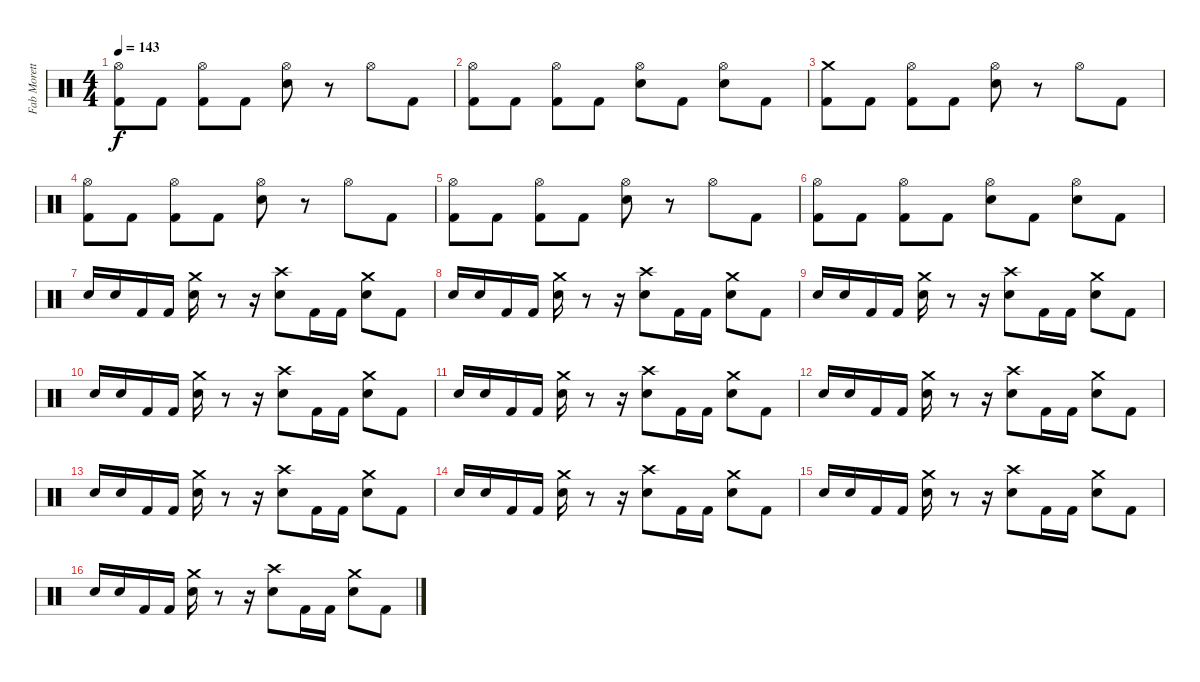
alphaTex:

\track ("Fab Moretti" "Fab Morett") {instrument percussion}
\staff {score}
\articulation defaults
\ts (4 4)
\tempo 143
\clef neutral
\ks c
("Hi-Hat (open)" "Kick (hit) 2").8{dy f} "Kick (hit) 2".8 ("Hi-Hat (open)" "Kick (hit) 2").8 "Kick (hit) 2".8 ("Hi-Hat (open)" "Electric Snare (hit)").8 r.8 "Hi-Hat (open)".8 "Kick (hit) 2".8 |
("Hi-Hat (open)" "Kick (hit) 2").8 "Kick (hit) 2".8 ("Hi-Hat (open)" "Kick (hit) 2").8 "Kick (hit) 2".8 ("Hi-Hat (open)" "Electric Snare (hit)").8 "Kick (hit) 2".8 ("Hi-Hat (open)" "Electric Snare (hit)").8 "Kick (hit) 2".8 |
("Crash medium (hit)" "Kick (hit) 2").8 "Kick (hit) 2".8 ("Hi-Hat (open)" "Kick (hit) 2").8 "Kick (hit) 2".8 ("Hi-Hat (open)" "Electric Snare (hit)").8 r.8 "Hi-Hat (open)".8 "Kick (hit) 2".8 |
("Hi-Hat (open)" "Kick (hit) 2").8 "Kick (hit) 2".8 ("Hi-Hat (open)" "Kick (hit) 2").8 "Kick (hit) 2".8 ("Hi-Hat (open)" "Electric Snare (hit)").8 r.8 "Hi-Hat (open)".8 "Kick (hit) 2".8 |
("Hi-Hat (open)" "Kick (hit) 2").8 "Kick (hit) 2".8 ("Hi-Hat (open)" "Kick (hit) 2").8 "Kick (hit) 2".8 ("Hi-Hat (open)" "Electric Snare (hit)").8 r.8 "Hi-Hat (open)".8 "Kick (hit) 2".8 |
("Hi-Hat (open)" "Kick (hit) 2").8 "Kick (hit) 2".8 ("Hi-Hat (open)" "Kick (hit) 2").8 "Kick (hit) 2".8 ("Hi-Hat (open)" "Electric Snare (hit)").8 "Kick (hit) 2".8 ("Hi-Hat (open)" "Electric Snare (hit)").8 "Kick (hit) 2".8 |
"Electric Snare (hit)".16 "Electric Snare (hit)".16 "Kick (hit) 2".16 "Kick (hit) 2".16 ("Crash medium (hit)" "Electric Snare (hit)").16 r.8 r.16 ("Crash high (hit)" "Electric Snare (hit)").8 "Kick (hit) 2".16 "Kick (hit) 2".16 ("Crash medium (hit)" "Electric Snare (hit)").8 "Kick (hit) 2".8 |
"Electric Snare (hit)".16 "Electric Snare (hit)".16 "Kick (hit) 2".16 "Kick (hit) 2".16 ("Crash medium (hit)" "Electric Snare (hit)").16 r.8 r.16 ("Crash high (hit)" "Electric Snare (hit)").8 "Kick (hit) 2".16 "Kick (hit) 2".16 ("Crash medium (hit)" "Electric Snare (hit)").8 "Kick (hit) 2".8 |
"Electric Snare (hit)".16 "Electric Snare (hit)".16 "Kick (hit) 2".16 "Kick (hit) 2".16 ("Crash medium (hit)" "Electric Snare (hit)").16 r.8 r.16 ("Crash high (hit)" "Electric Snare (hit)").8 "Kick (hit) 2".16 "Kick (hit) 2".16 ("Crash medium (hit)" "Electric Snare (hit)").8 "Kick (hit) 2".8 |
"Electric Snare (hit)".16 "Electric Snare (hit)".16 "Kick (hit) 2".16 "Kick (hit) 2".16 ("Crash medium (hit)" "Electric Snare (hit)").16 r.8 r.16 ("Crash high (hit)" "Electric Snare (hit)").8 "Kick (hit) 2".16 "Kick (hit) 2".16 ("Crash medium (hit)" "Electric Snare (hit)").8 "Kick (hit) 2".8 |
"Electric Snare (hit)".16 "Electric Snare (hit)".16 "Kick (hit) 2".16 "Kick (hit) 2".16 ("Crash medium (hit)" "Electric Snare (hit)").16 r.8 r.16 ("Crash high (hit)" "Electric Snare (hit)").8 "Kick (hit) 2".16 "Kick (hit) 2".16 ("Crash medium (hit)" "Electric Snare (hit)").8 "Kick (hit) 2".8 |
"Electric Snare (hit)".16 "Electric Snare (hit)".16 "Kick (hit) 2".16 "Kick (hit) 2".16 ("Crash medium (hit)" "Electric Snare (hit)").16 r.8 r.16 ("Crash high (hit)" "Electric Snare (hit)").8 "Kick (hit) 2".16 "Kick (hit) 2".16 ("Crash medium (hit)" "Electric Snare (hit)").8 "Kick (hit) 2".8 |
"Electric Snare (hit)".16 "Electric Snare (hit)".16 "Kick (hit) 2".16 "Kick (hit) 2".16 ("Crash medium (hit)" "Electric Snare (hit)").16 r.8 r.16 ("Crash high (hit)" "Electric Snare (hit)").8 "Kick (hit) 2".16 "Kick (hit) 2".16 ("Crash medium (hit)" "Electric Snare (hit)").8 "Kick (hit) 2".8 |
"Electric Snare (hit)".16 "Electric Snare (hit)".16 "Kick (hit) 2".16 "Kick (hit) 2".16 ("Crash medium (hit)" "Electric Snare (hit)").16 r.8 r.16 ("Crash high (hit)" "Electric Snare (hit)").8 "Kick (hit) 2".16 "Kick (hit) 2".16 ("Crash medium (hit)" "Electric Snare (hit)").8 "Kick (hit) 2".8 |
"Electric Snare (hit)".16 "Electric Snare (hit)".16 "Kick (hit) 2".16 "Kick (hit) 2".16 ("Crash medium (hit)" "Electric Snare (hit)").16 r.8 r.16 ("Crash high (hit)" "Electric Snare (hit)").8 "Kick (hit) 2".16 "Kick (hit) 2".16 ("Crash medium (hit)" "Electric Snare (hit)").8 "Kick (hit) 2".8 |
"Electric Snare (hit)".16 "Electric Snare (hit)".16 "Kick (hit) 2".16 "Kick (hit) 2".16 ("Crash medium (hit)" "Electric Snare (hit)").16 r.8 r.16 ("Crash high (hit)" "Electric Snare (hit)").8 "Kick (hit) 2".16 "Kick (hit) 2".16 ("Crash medium (hit)" "Electric Snare (hit)").8 "Kick (hit) 2".8
